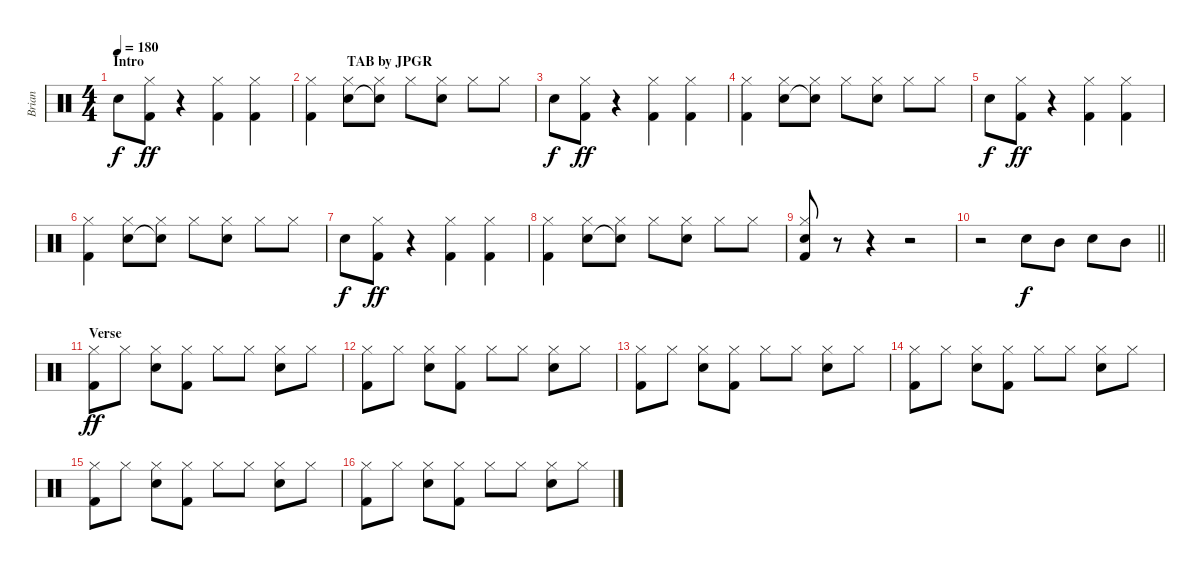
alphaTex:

\track ("Brian" "Brian") {instrument percussion}
\staff {score}
\articulation defaults
\ts (4 4)
\section ("" "Intro                                                          TAB by JPGR")
\tempo 180
\clef neutral
\ks c "Snare (hit) 2".8{dy f}
("Hi-Hat (closed)" "Kick (hit) 2").8{dy ff} r.4 ("Hi-Hat (closed)" "Kick (hit) 2").4 ("Hi-Hat (closed)" "Kick (hit) 2").4 |
("Hi-Hat (closed)" "Kick (hit) 2").4 ("Hi-Hat (closed)" "Snare (hit) 2").8 ("Hi-Hat (closed)" "Electric Snare (hit)"{t}).8 "Hi-Hat (closed)".8 ("Hi-Hat (closed)" "Snare (hit) 2").8 "Hi-Hat (closed)".8 "Hi-Hat (closed)".8 |
"Snare (hit) 2".8{dy f} ("Hi-Hat (closed)" "Kick (hit) 2").8{dy ff} r.4 ("Hi-Hat (closed)" "Kick (hit) 2").4 ("Hi-Hat (closed)" "Kick (hit) 2").4 |
("Hi-Hat (closed)" "Kick (hit) 2").4 ("Hi-Hat (closed)" "Snare (hit) 2").8 ("Hi-Hat (closed)" "Electric Snare (hit)"{t}).8 "Hi-Hat (closed)".8 ("Hi-Hat (closed)" "Snare (hit) 2").8 "Hi-Hat (closed)".8 "Hi-Hat (closed)".8 |
"Snare (hit) 2".8{dy f} ("Hi-Hat (closed)" "Kick (hit) 2").8{dy ff} r.4 ("Hi-Hat (closed)" "Kick (hit) 2").4 ("Hi-Hat (closed)" "Kick (hit) 2").4 |
("Hi-Hat (closed)" "Kick (hit) 2").4 ("Hi-Hat (closed)" "Snare (hit) 2").8 ("Hi-Hat (closed)" "Electric Snare (hit)"{t}).8 "Hi-Hat (closed)".8 ("Hi-Hat (closed)" "Snare (hit) 2").8 "Hi-Hat (closed)".8 "Hi-Hat (closed)".8 |
"Snare (hit) 2".8{dy f} ("Hi-Hat (closed)" "Kick (hit) 2").8{dy ff} r.4 ("Hi-Hat (closed)" "Kick (hit) 2").4 ("Hi-Hat (closed)" "Kick (hit) 2").4 |
("Hi-Hat (closed)" "Kick (hit) 2").4 ("Hi-Hat (closed)" "Snare (hit) 2").8 ("Hi-Hat (closed)" "Electric Snare (hit)"{t}).8 "Hi-Hat (closed)".8 ("Hi-Hat (closed)" "Snare (hit) 2").8 "Hi-Hat (closed)".8 "Hi-Hat (closed)".8 |
("Hi-Hat (closed)" "Snare (hit) 2" "Kick (hit) 2").8 r.8 r.4 r.2 |
\barLineRight lightlight
r.2 "Snare (hit) 2".8{dy f} "Mid Tom (hit)".8 "Snare (hit) 2".8 "Mid Tom (hit)".8 |
\section ("" "Verse ")
("Hi-Hat (closed)" "Kick (hit) 2").8{dy ff} "Hi-Hat (closed)".8 ("Hi-Hat (closed)" "Snare (hit) 2").8 ("Hi-Hat (closed)" "Kick (hit) 2").8 "Hi-Hat (closed)".8 "Hi-Hat (closed)".8 ("Hi-Hat (closed)" "Snare (hit) 2").8 "Hi-Hat (closed)".8 |
("Hi-Hat (closed)" "Kick (hit) 2").8 "Hi-Hat (closed)".8 ("Hi-Hat (closed)" "Snare (hit) 2").8 ("Hi-Hat (closed)" "Kick (hit) 2").8 "Hi-Hat (closed)".8 "Hi-Hat (closed)".8 ("Hi-Hat (closed)" "Snare (hit) 2").8 "Hi-Hat (closed)".8 |
("Hi-Hat (closed)" "Kick (hit) 2").8 "Hi-Hat (closed)".8 ("Hi-Hat (closed)" "Snare (hit) 2").8 ("Hi-Hat (closed)" "Kick (hit) 2").8 "Hi-Hat (closed)".8 "Hi-Hat (closed)".8 ("Hi-Hat (closed)" "Snare (hit) 2").8 "Hi-Hat (closed)".8 |
("Hi-Hat (closed)" "Kick (hit) 2").8 "Hi-Hat (closed)".8 ("Hi-Hat (closed)" "Snare (hit) 2").8 ("Hi-Hat (closed)" "Kick (hit) 2").8 "Hi-Hat (closed)".8 "Hi-Hat (closed)".8 ("Hi-Hat (closed)" "Snare (hit) 2").8 "Hi-Hat (closed)".8 |
("Hi-Hat (closed)" "Kick (hit) 2").8 "Hi-Hat (closed)".8 ("Hi-Hat (closed)" "Snare (hit) 2").8 ("Hi-Hat (closed)" "Kick (hit) 2").8 "Hi-Hat (closed)".8 "Hi-Hat (closed)".8 ("Hi-Hat (closed)" "Snare (hit) 2").8 "Hi-Hat (closed)".8 |
("Hi-Hat (closed)" "Kick (hit) 2").8 "Hi-Hat (closed)".8 ("Hi-Hat (closed)" "Snare (hit) 2").8 ("Hi-Hat (closed)" "Kick (hit) 2").8 "Hi-Hat (closed)".8 "Hi-Hat (closed)".8 ("Hi-Hat (closed)" "Snare (hit) 2").8 "Hi-Hat (closed)".8
